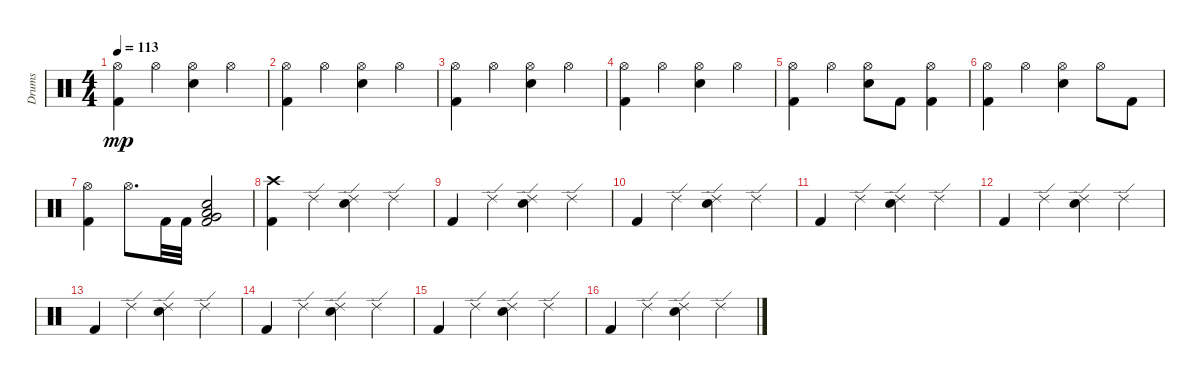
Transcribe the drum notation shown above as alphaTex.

\track ("Drums" "Drums") {instrument percussion}
\staff {score}
\articulation defaults
\ts (4 4)
\tempo 113
\clef neutral
\ks c
("Kick (hit) 2" "Hi-Hat (open)").4{dy mp} "Hi-Hat (open)".4 ("Snare (hit) 2" "Hi-Hat (open)").4 "Hi-Hat (open)".4 |
("Kick (hit) 2" "Hi-Hat (open)").4 "Hi-Hat (open)".4 ("Snare (hit) 2" "Hi-Hat (open)").4 "Hi-Hat (open)".4 |
("Kick (hit) 2" "Hi-Hat (open)").4 "Hi-Hat (open)".4 ("Snare (hit) 2" "Hi-Hat (open)").4 "Hi-Hat (open)".4 |
("Kick (hit) 2" "Hi-Hat (open)").4 "Hi-Hat (open)".4 ("Snare (hit) 2" "Hi-Hat (open)").4 "Hi-Hat (open)".4 |
("Kick (hit) 2" "Hi-Hat (open)").4 "Hi-Hat (open)".4 ("Snare (hit) 2" "Hi-Hat (open)").8 "Kick (hit) 2".8 ("Kick (hit) 2" "Hi-Hat (open)").4 |
("Kick (hit) 2" "Hi-Hat (open)").4 "Hi-Hat (open)".4 ("Snare (hit) 2" "Hi-Hat (open)").4 "Hi-Hat (open)".8 "Kick (hit) 2".8 |
("Kick (hit) 2" "Hi-Hat (open)").4 "Hi-Hat (open)".8{d} "Kick (hit) 2".32 "Kick (hit) 2".32 ("Kick (hit) 2" "Snare (hit) 2" "Low Floor Tom (hit)" "Very Low Tom (hit)").2 |
("Kick (hit) 2" "Crash high (hit)").4 "Ride (edge) 2".4 ("Snare (hit) 2" "Ride (edge) 2").4 "Ride (edge) 2".4 |
"Kick (hit) 2".4 "Ride (edge) 2".4 ("Snare (hit) 2" "Ride (edge) 2").4 "Ride (edge) 2".4 |
"Kick (hit) 2".4 "Ride (edge) 2".4 ("Snare (hit) 2" "Ride (edge) 2").4 "Ride (edge) 2".4 |
"Kick (hit) 2".4 "Ride (edge) 2".4 ("Snare (hit) 2" "Ride (edge) 2").4 "Ride (edge) 2".4 |
"Kick (hit) 2".4 "Ride (edge) 2".4 ("Snare (hit) 2" "Ride (edge) 2").4 "Ride (edge) 2".4 |
"Kick (hit) 2".4 "Ride (edge) 2".4 ("Snare (hit) 2" "Ride (edge) 2").4 "Ride (edge) 2".4 |
"Kick (hit) 2".4 "Ride (edge) 2".4 ("Snare (hit) 2" "Ride (edge) 2").4 "Ride (edge) 2".4 |
"Kick (hit) 2".4 "Ride (edge) 2".4 ("Snare (hit) 2" "Ride (edge) 2").4 "Ride (edge) 2".4 |
"Kick (hit) 2".4 "Ride (edge) 2".4 ("Snare (hit) 2" "Ride (edge) 2").4 "Ride (edge) 2".4
